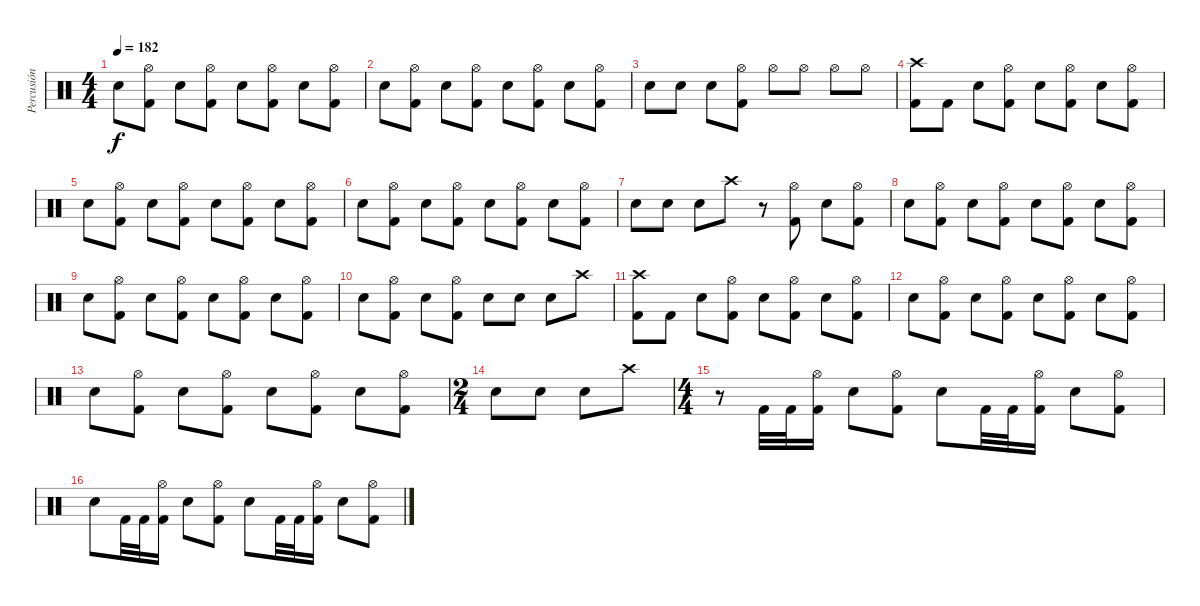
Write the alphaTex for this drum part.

\track ("Percusión" "Percusión") {instrument percussion}
\staff {score}
\articulation defaults
\ts (4 4)
\tempo 182
\clef neutral
\ks c "Electric Snare (hit)".8{dy f}
("Hi-Hat (open)" "Kick (hit) 2").8 "Electric Snare (hit)".8 ("Hi-Hat (open)" "Kick (hit) 2").8 "Electric Snare (hit)".8 ("Hi-Hat (open)" "Kick (hit) 2").8 "Electric Snare (hit)".8 ("Hi-Hat (open)" "Kick (hit) 2").8 |
"Electric Snare (hit)".8 ("Hi-Hat (open)" "Kick (hit) 2").8 "Electric Snare (hit)".8 ("Hi-Hat (open)" "Kick (hit) 2").8 "Electric Snare (hit)".8 ("Hi-Hat (open)" "Kick (hit) 2").8 "Electric Snare (hit)".8 ("Hi-Hat (open)" "Kick (hit) 2").8 |
"Electric Snare (hit)".8 "Electric Snare (hit)".8 "Electric Snare (hit)".8 ("Hi-Hat (open)" "Kick (hit) 2").8 "Hi-Hat (open)".8 "Hi-Hat (open)".8 "Hi-Hat (open)".8 "Hi-Hat (open)".8 |
("Crash high (hit)" "Kick (hit) 2").8 "Kick (hit) 2".8 "Electric Snare (hit)".8 ("Hi-Hat (open)" "Kick (hit) 2").8 "Electric Snare (hit)".8 ("Hi-Hat (open)" "Kick (hit) 2").8 "Electric Snare (hit)".8 ("Hi-Hat (open)" "Kick (hit) 2").8 |
"Electric Snare (hit)".8 ("Hi-Hat (open)" "Kick (hit) 2").8 "Electric Snare (hit)".8 ("Hi-Hat (open)" "Kick (hit) 2").8 "Electric Snare (hit)".8 ("Hi-Hat (open)" "Kick (hit) 2").8 "Electric Snare (hit)".8 ("Hi-Hat (open)" "Kick (hit) 2").8 |
"Electric Snare (hit)".8 ("Hi-Hat (open)" "Kick (hit) 2").8 "Electric Snare (hit)".8 ("Hi-Hat (open)" "Kick (hit) 2").8 "Electric Snare (hit)".8 ("Hi-Hat (open)" "Kick (hit) 2").8 "Electric Snare (hit)".8 ("Hi-Hat (open)" "Kick (hit) 2").8 |
"Electric Snare (hit)".8 "Electric Snare (hit)".8 "Electric Snare (hit)".8 "Crash high (hit)".8 r.8 ("Hi-Hat (open)" "Kick (hit) 2").8 "Electric Snare (hit)".8 ("Hi-Hat (open)" "Kick (hit) 2").8 |
"Electric Snare (hit)".8 ("Hi-Hat (open)" "Kick (hit) 2").8 "Electric Snare (hit)".8 ("Hi-Hat (open)" "Kick (hit) 2").8 "Electric Snare (hit)".8 ("Hi-Hat (open)" "Kick (hit) 2").8 "Electric Snare (hit)".8 ("Hi-Hat (open)" "Kick (hit) 2").8 |
"Electric Snare (hit)".8 ("Hi-Hat (open)" "Kick (hit) 2").8 "Electric Snare (hit)".8 ("Hi-Hat (open)" "Kick (hit) 2").8 "Electric Snare (hit)".8 ("Hi-Hat (open)" "Kick (hit) 2").8 "Electric Snare (hit)".8 ("Hi-Hat (open)" "Kick (hit) 2").8 |
"Electric Snare (hit)".8 ("Hi-Hat (open)" "Kick (hit) 2").8 "Electric Snare (hit)".8 ("Hi-Hat (open)" "Kick (hit) 2").8 "Electric Snare (hit)".8 "Electric Snare (hit)".8 "Electric Snare (hit)".8 "Crash high (hit)".8 |
("Crash high (hit)" "Kick (hit) 2").8 "Kick (hit) 2".8 "Electric Snare (hit)".8 ("Hi-Hat (open)" "Kick (hit) 2").8 "Electric Snare (hit)".8 ("Hi-Hat (open)" "Kick (hit) 2").8 "Electric Snare (hit)".8 ("Hi-Hat (open)" "Kick (hit) 2").8 |
"Electric Snare (hit)".8 ("Hi-Hat (open)" "Kick (hit) 2").8 "Electric Snare (hit)".8 ("Hi-Hat (open)" "Kick (hit) 2").8 "Electric Snare (hit)".8 ("Hi-Hat (open)" "Kick (hit) 2").8 "Electric Snare (hit)".8 ("Hi-Hat (open)" "Kick (hit) 2").8 |
"Electric Snare (hit)".8 ("Hi-Hat (open)" "Kick (hit) 2").8 "Electric Snare (hit)".8 ("Hi-Hat (open)" "Kick (hit) 2").8 "Electric Snare (hit)".8 ("Hi-Hat (open)" "Kick (hit) 2").8 "Electric Snare (hit)".8 ("Hi-Hat (open)" "Kick (hit) 2").8 |
\ts (2 4)
"Electric Snare (hit)".8 "Electric Snare (hit)".8 "Electric Snare (hit)".8 "Crash high (hit)".8 |
\ts (4 4)
r.8 "Kick (hit) 2".32 "Kick (hit) 2".32 ("Hi-Hat (open)" "Kick (hit) 2").16 "Electric Snare (hit)".8 ("Hi-Hat (open)" "Kick (hit) 2").8 "Electric Snare (hit)".8 "Kick (hit) 2".32 "Kick (hit) 2".32 ("Hi-Hat (open)" "Kick (hit) 2").16 "Electric Snare (hit)".8 ("Hi-Hat (open)" "Kick (hit) 2").8 |
"Electric Snare (hit)".8 "Kick (hit) 2".32 "Kick (hit) 2".32 ("Hi-Hat (open)" "Kick (hit) 2").16 "Electric Snare (hit)".8 ("Hi-Hat (open)" "Kick (hit) 2").8 "Electric Snare (hit)".8 "Kick (hit) 2".32 "Kick (hit) 2".32 ("Hi-Hat (open)" "Kick (hit) 2").16 "Electric Snare (hit)".8 ("Hi-Hat (open)" "Kick (hit) 2").8
